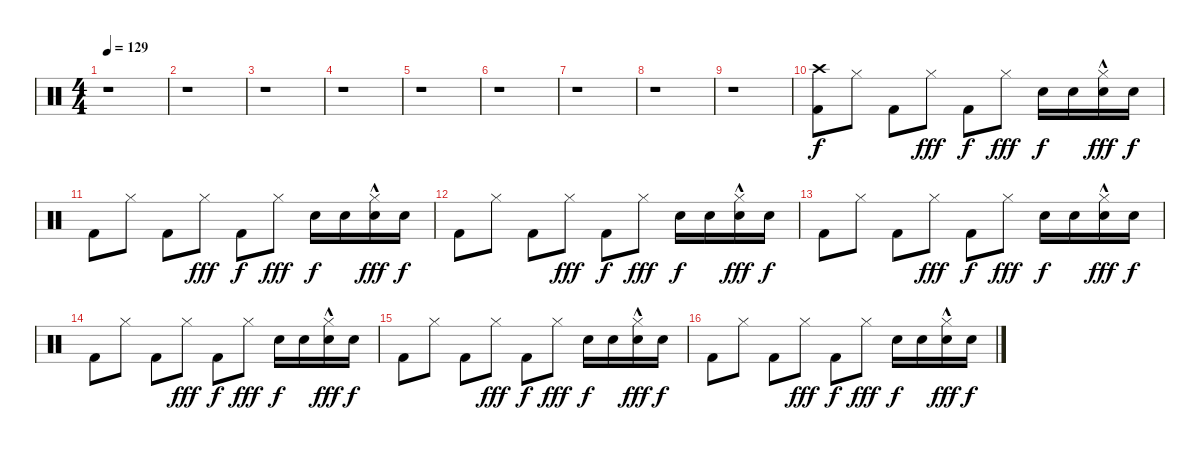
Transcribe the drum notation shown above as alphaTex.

\track "" {instrument percussion}
\staff {score}
\articulation defaults
\ts (4 4)
\tempo 129
\clef neutral
\ks c
r.1{dy f} |
r.1 |
r.1 |
r.1 |
r.1 |
r.1 |
r.1 |
r.1 |
r.1 |
("Crash high (hit)" "Kick (hit) 2").8 "Hi-Hat (closed)".8 "Kick (hit) 2".8 "Hi-Hat (closed)".8{dy fff} "Kick (hit) 2".8{dy f} "Hi-Hat (closed)".8{dy fff} "Snare (hit) 2".16{dy f} "Snare (hit) 2".16 ("Snare (hit) 2" "Hi-Hat (closed)"{hac}).16{dy fff} "Snare (hit) 2".16{dy f} |
"Kick (hit) 2".8 "Hi-Hat (closed)".8 "Kick (hit) 2".8 "Hi-Hat (closed)".8{dy fff} "Kick (hit) 2".8{dy f} "Hi-Hat (closed)".8{dy fff} "Snare (hit) 2".16{dy f} "Snare (hit) 2".16 ("Snare (hit) 2" "Hi-Hat (closed)"{hac}).16{dy fff} "Snare (hit) 2".16{dy f} |
"Kick (hit) 2".8 "Hi-Hat (closed)".8 "Kick (hit) 2".8 "Hi-Hat (closed)".8{dy fff} "Kick (hit) 2".8{dy f} "Hi-Hat (closed)".8{dy fff} "Snare (hit) 2".16{dy f} "Snare (hit) 2".16 ("Snare (hit) 2" "Hi-Hat (closed)"{hac}).16{dy fff} "Snare (hit) 2".16{dy f} |
"Kick (hit) 2".8 "Hi-Hat (closed)".8 "Kick (hit) 2".8 "Hi-Hat (closed)".8{dy fff} "Kick (hit) 2".8{dy f} "Hi-Hat (closed)".8{dy fff} "Snare (hit) 2".16{dy f} "Snare (hit) 2".16 ("Snare (hit) 2" "Hi-Hat (closed)"{hac}).16{dy fff} "Snare (hit) 2".16{dy f} |
"Kick (hit) 2".8 "Hi-Hat (closed)".8 "Kick (hit) 2".8 "Hi-Hat (closed)".8{dy fff} "Kick (hit) 2".8{dy f} "Hi-Hat (closed)".8{dy fff} "Snare (hit) 2".16{dy f} "Snare (hit) 2".16 ("Snare (hit) 2" "Hi-Hat (closed)"{hac}).16{dy fff} "Snare (hit) 2".16{dy f} |
"Kick (hit) 2".8 "Hi-Hat (closed)".8 "Kick (hit) 2".8 "Hi-Hat (closed)".8{dy fff} "Kick (hit) 2".8{dy f} "Hi-Hat (closed)".8{dy fff} "Snare (hit) 2".16{dy f} "Snare (hit) 2".16 ("Snare (hit) 2" "Hi-Hat (closed)"{hac}).16{dy fff} "Snare (hit) 2".16{dy f} |
"Kick (hit) 2".8 "Hi-Hat (closed)".8 "Kick (hit) 2".8 "Hi-Hat (closed)".8{dy fff} "Kick (hit) 2".8{dy f} "Hi-Hat (closed)".8{dy fff} "Snare (hit) 2".16{dy f} "Snare (hit) 2".16 ("Snare (hit) 2" "Hi-Hat (closed)"{hac}).16{dy fff} "Snare (hit) 2".16{dy f}
